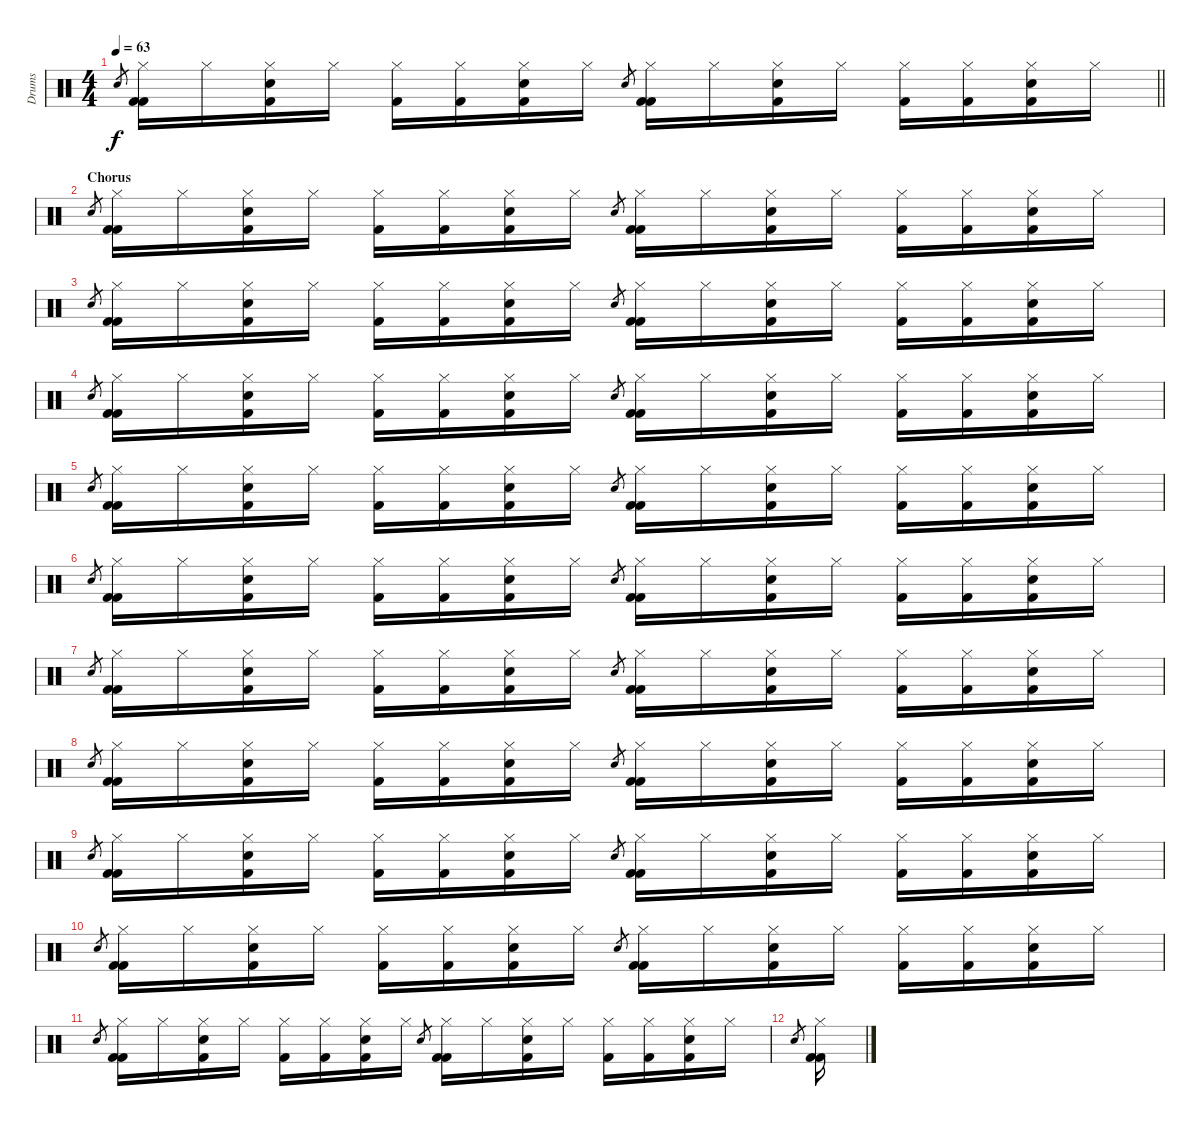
\track ("Drums" "Drums") {instrument percussion}
\staff {score}
\articulation defaults
\ts (4 4)
\tempo 63
\clef neutral
\barLineRight lightlight
\ks c "Snare (hit) 2".8{gr dy f}
("Kick (hit) 2" "Hi-Hat (closed)" "Kick (hit) 2").16 "Hi-Hat (closed)".16 ("Snare (hit) 2" "Hi-Hat (closed)" "Kick (hit) 2").16 "Hi-Hat (closed)".16 ("Hi-Hat (closed)" "Kick (hit) 2").16 ("Hi-Hat (closed)" "Kick (hit) 2").16 ("Snare (hit) 2" "Hi-Hat (closed)" "Kick (hit) 2").16 "Hi-Hat (closed)".16 "Snare (hit) 2".8{gr} ("Kick (hit) 2" "Hi-Hat (closed)" "Kick (hit) 2").16 "Hi-Hat (closed)".16 ("Snare (hit) 2" "Hi-Hat (closed)" "Kick (hit) 2").16 "Hi-Hat (closed)".16 ("Hi-Hat (closed)" "Kick (hit) 2").16 ("Hi-Hat (closed)" "Kick (hit) 2").16 ("Snare (hit) 2" "Hi-Hat (closed)" "Kick (hit) 2").16 "Hi-Hat (closed)".16 |
\section ("" "Chorus")
"Snare (hit) 2".8{gr} ("Kick (hit) 2" "Hi-Hat (closed)" "Kick (hit) 2").16 "Hi-Hat (closed)".16 ("Snare (hit) 2" "Hi-Hat (closed)" "Kick (hit) 2").16 "Hi-Hat (closed)".16 ("Hi-Hat (closed)" "Kick (hit) 2").16 ("Hi-Hat (closed)" "Kick (hit) 2").16 ("Snare (hit) 2" "Hi-Hat (closed)" "Kick (hit) 2").16 "Hi-Hat (closed)".16 "Snare (hit) 2".8{gr} ("Kick (hit) 2" "Hi-Hat (closed)" "Kick (hit) 2").16 "Hi-Hat (closed)".16 ("Snare (hit) 2" "Hi-Hat (closed)" "Kick (hit) 2").16 "Hi-Hat (closed)".16 ("Hi-Hat (closed)" "Kick (hit) 2").16 ("Hi-Hat (closed)" "Kick (hit) 2").16 ("Snare (hit) 2" "Hi-Hat (closed)" "Kick (hit) 2").16 "Hi-Hat (closed)".16 |
"Snare (hit) 2".8{gr} ("Kick (hit) 2" "Hi-Hat (closed)" "Kick (hit) 2").16 "Hi-Hat (closed)".16 ("Snare (hit) 2" "Hi-Hat (closed)" "Kick (hit) 2").16 "Hi-Hat (closed)".16 ("Hi-Hat (closed)" "Kick (hit) 2").16 ("Hi-Hat (closed)" "Kick (hit) 2").16 ("Snare (hit) 2" "Hi-Hat (closed)" "Kick (hit) 2").16 "Hi-Hat (closed)".16 "Snare (hit) 2".8{gr} ("Kick (hit) 2" "Hi-Hat (closed)" "Kick (hit) 2").16 "Hi-Hat (closed)".16 ("Snare (hit) 2" "Hi-Hat (closed)" "Kick (hit) 2").16 "Hi-Hat (closed)".16 ("Hi-Hat (closed)" "Kick (hit) 2").16 ("Hi-Hat (closed)" "Kick (hit) 2").16 ("Snare (hit) 2" "Hi-Hat (closed)" "Kick (hit) 2").16 "Hi-Hat (closed)".16 |
"Snare (hit) 2".8{gr} ("Kick (hit) 2" "Hi-Hat (closed)" "Kick (hit) 2").16 "Hi-Hat (closed)".16 ("Snare (hit) 2" "Hi-Hat (closed)" "Kick (hit) 2").16 "Hi-Hat (closed)".16 ("Hi-Hat (closed)" "Kick (hit) 2").16 ("Hi-Hat (closed)" "Kick (hit) 2").16 ("Snare (hit) 2" "Hi-Hat (closed)" "Kick (hit) 2").16 "Hi-Hat (closed)".16 "Snare (hit) 2".8{gr} ("Kick (hit) 2" "Hi-Hat (closed)" "Kick (hit) 2").16 "Hi-Hat (closed)".16 ("Snare (hit) 2" "Hi-Hat (closed)" "Kick (hit) 2").16 "Hi-Hat (closed)".16 ("Hi-Hat (closed)" "Kick (hit) 2").16 ("Hi-Hat (closed)" "Kick (hit) 2").16 ("Snare (hit) 2" "Hi-Hat (closed)" "Kick (hit) 2").16 "Hi-Hat (closed)".16 |
"Snare (hit) 2".8{gr} ("Kick (hit) 2" "Hi-Hat (closed)" "Kick (hit) 2").16 "Hi-Hat (closed)".16 ("Snare (hit) 2" "Hi-Hat (closed)" "Kick (hit) 2").16 "Hi-Hat (closed)".16 ("Hi-Hat (closed)" "Kick (hit) 2").16 ("Hi-Hat (closed)" "Kick (hit) 2").16 ("Snare (hit) 2" "Hi-Hat (closed)" "Kick (hit) 2").16 "Hi-Hat (closed)".16 "Snare (hit) 2".8{gr} ("Kick (hit) 2" "Hi-Hat (closed)" "Kick (hit) 2").16 "Hi-Hat (closed)".16 ("Snare (hit) 2" "Hi-Hat (closed)" "Kick (hit) 2").16 "Hi-Hat (closed)".16 ("Hi-Hat (closed)" "Kick (hit) 2").16 ("Hi-Hat (closed)" "Kick (hit) 2").16 ("Snare (hit) 2" "Hi-Hat (closed)" "Kick (hit) 2").16 "Hi-Hat (closed)".16 |
"Snare (hit) 2".8{gr} ("Kick (hit) 2" "Hi-Hat (closed)" "Kick (hit) 2").16 "Hi-Hat (closed)".16 ("Snare (hit) 2" "Hi-Hat (closed)" "Kick (hit) 2").16 "Hi-Hat (closed)".16 ("Hi-Hat (closed)" "Kick (hit) 2").16 ("Hi-Hat (closed)" "Kick (hit) 2").16 ("Snare (hit) 2" "Hi-Hat (closed)" "Kick (hit) 2").16 "Hi-Hat (closed)".16 "Snare (hit) 2".8{gr} ("Kick (hit) 2" "Hi-Hat (closed)" "Kick (hit) 2").16 "Hi-Hat (closed)".16 ("Snare (hit) 2" "Hi-Hat (closed)" "Kick (hit) 2").16 "Hi-Hat (closed)".16 ("Hi-Hat (closed)" "Kick (hit) 2").16 ("Hi-Hat (closed)" "Kick (hit) 2").16 ("Snare (hit) 2" "Hi-Hat (closed)" "Kick (hit) 2").16 "Hi-Hat (closed)".16 |
"Snare (hit) 2".8{gr} ("Kick (hit) 2" "Hi-Hat (closed)" "Kick (hit) 2").16 "Hi-Hat (closed)".16 ("Snare (hit) 2" "Hi-Hat (closed)" "Kick (hit) 2").16 "Hi-Hat (closed)".16 ("Hi-Hat (closed)" "Kick (hit) 2").16 ("Hi-Hat (closed)" "Kick (hit) 2").16 ("Snare (hit) 2" "Hi-Hat (closed)" "Kick (hit) 2").16 "Hi-Hat (closed)".16 "Snare (hit) 2".8{gr} ("Kick (hit) 2" "Hi-Hat (closed)" "Kick (hit) 2").16 "Hi-Hat (closed)".16 ("Snare (hit) 2" "Hi-Hat (closed)" "Kick (hit) 2").16 "Hi-Hat (closed)".16 ("Hi-Hat (closed)" "Kick (hit) 2").16 ("Hi-Hat (closed)" "Kick (hit) 2").16 ("Snare (hit) 2" "Hi-Hat (closed)" "Kick (hit) 2").16 "Hi-Hat (closed)".16 |
"Snare (hit) 2".8{gr} ("Kick (hit) 2" "Hi-Hat (closed)" "Kick (hit) 2").16 "Hi-Hat (closed)".16 ("Snare (hit) 2" "Hi-Hat (closed)" "Kick (hit) 2").16 "Hi-Hat (closed)".16 ("Hi-Hat (closed)" "Kick (hit) 2").16 ("Hi-Hat (closed)" "Kick (hit) 2").16 ("Snare (hit) 2" "Hi-Hat (closed)" "Kick (hit) 2").16 "Hi-Hat (closed)".16 "Snare (hit) 2".8{gr} ("Kick (hit) 2" "Hi-Hat (closed)" "Kick (hit) 2").16 "Hi-Hat (closed)".16 ("Snare (hit) 2" "Hi-Hat (closed)" "Kick (hit) 2").16 "Hi-Hat (closed)".16 ("Hi-Hat (closed)" "Kick (hit) 2").16 ("Hi-Hat (closed)" "Kick (hit) 2").16 ("Snare (hit) 2" "Hi-Hat (closed)" "Kick (hit) 2").16 "Hi-Hat (closed)".16 |
"Snare (hit) 2".8{gr} ("Kick (hit) 2" "Hi-Hat (closed)" "Kick (hit) 2").16 "Hi-Hat (closed)".16 ("Snare (hit) 2" "Hi-Hat (closed)" "Kick (hit) 2").16 "Hi-Hat (closed)".16 ("Hi-Hat (closed)" "Kick (hit) 2").16 ("Hi-Hat (closed)" "Kick (hit) 2").16 ("Snare (hit) 2" "Hi-Hat (closed)" "Kick (hit) 2").16 "Hi-Hat (closed)".16 "Snare (hit) 2".8{gr} ("Kick (hit) 2" "Hi-Hat (closed)" "Kick (hit) 2").16 "Hi-Hat (closed)".16 ("Snare (hit) 2" "Hi-Hat (closed)" "Kick (hit) 2").16 "Hi-Hat (closed)".16 ("Hi-Hat (closed)" "Kick (hit) 2").16 ("Hi-Hat (closed)" "Kick (hit) 2").16 ("Snare (hit) 2" "Hi-Hat (closed)" "Kick (hit) 2").16 "Hi-Hat (closed)".16 |
"Snare (hit) 2".8{gr} ("Kick (hit) 2" "Hi-Hat (closed)" "Kick (hit) 2").16 "Hi-Hat (closed)".16 ("Snare (hit) 2" "Hi-Hat (closed)" "Kick (hit) 2").16 "Hi-Hat (closed)".16 ("Hi-Hat (closed)" "Kick (hit) 2").16 ("Hi-Hat (closed)" "Kick (hit) 2").16 ("Snare (hit) 2" "Hi-Hat (closed)" "Kick (hit) 2").16 "Hi-Hat (closed)".16 "Snare (hit) 2".8{gr} ("Kick (hit) 2" "Hi-Hat (closed)" "Kick (hit) 2").16 "Hi-Hat (closed)".16 ("Snare (hit) 2" "Hi-Hat (closed)" "Kick (hit) 2").16 "Hi-Hat (closed)".16 ("Hi-Hat (closed)" "Kick (hit) 2").16 ("Hi-Hat (closed)" "Kick (hit) 2").16 ("Snare (hit) 2" "Hi-Hat (closed)" "Kick (hit) 2").16 "Hi-Hat (closed)".16 |
"Snare (hit) 2".8{gr} ("Kick (hit) 2" "Hi-Hat (closed)" "Kick (hit) 2").16 "Hi-Hat (closed)".16 ("Snare (hit) 2" "Hi-Hat (closed)" "Kick (hit) 2").16 "Hi-Hat (closed)".16 ("Hi-Hat (closed)" "Kick (hit) 2").16 ("Hi-Hat (closed)" "Kick (hit) 2").16 ("Snare (hit) 2" "Hi-Hat (closed)" "Kick (hit) 2").16 "Hi-Hat (closed)".16 "Snare (hit) 2".8{gr} ("Kick (hit) 2" "Hi-Hat (closed)" "Kick (hit) 2").16 "Hi-Hat (closed)".16 ("Snare (hit) 2" "Hi-Hat (closed)" "Kick (hit) 2").16 "Hi-Hat (closed)".16 ("Hi-Hat (closed)" "Kick (hit) 2").16 ("Hi-Hat (closed)" "Kick (hit) 2").16 ("Snare (hit) 2" "Hi-Hat (closed)" "Kick (hit) 2").16 "Hi-Hat (closed)".16 |
"Snare (hit) 2".8{gr} ("Kick (hit) 2" "Hi-Hat (closed)" "Kick (hit) 2").16
